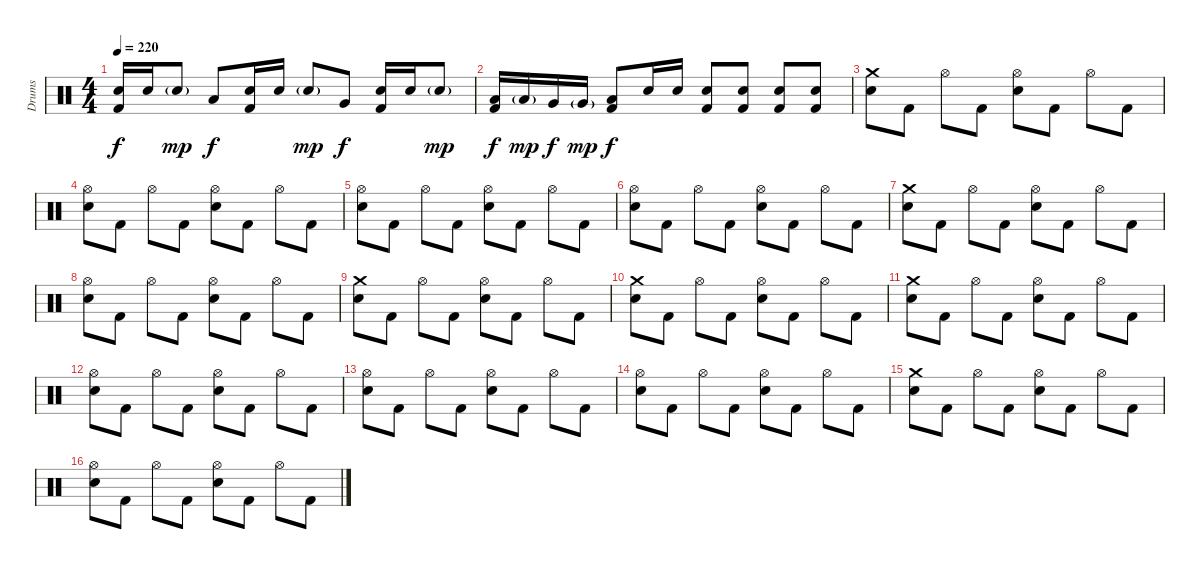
\track ("Drums" "Drums") {instrument percussion}
\staff {score}
\articulation defaults
\ts (4 4)
\tempo 220
\clef neutral
\ks c
("Electric Snare (hit)" "Kick (hit) 2").16{dy f} "Electric Snare (hit)".16 "Electric Snare (hit)"{g}.8{dy mp} "Low Tom (hit)".8{dy f} ("Electric Snare (hit)" "Kick (hit) 2").16 "Electric Snare (hit)".16 "Electric Snare (hit)"{g}.8{dy mp} "Very Low Tom (hit)".8{dy f} ("Electric Snare (hit)" "Kick (hit) 2").16 "Electric Snare (hit)".16 "Electric Snare (hit)"{g}.8{dy mp} |
("Low Tom (hit)" "Kick (hit) 2").16{dy f} "Low Tom (hit)"{g}.16{dy mp} "Very Low Tom (hit)".16{dy f} "Very Low Tom (hit)"{g}.16{dy mp} ("Low Floor Tom (hit)" "Kick (hit) 2").8{dy f} "Electric Snare (hit)".16 "Electric Snare (hit)".16 ("Electric Snare (hit)" "Kick (hit) 2").8 ("Electric Snare (hit)" "Kick (hit) 2").8 ("Electric Snare (hit)" "Kick (hit) 2").8 ("Electric Snare (hit)" "Kick (hit) 2").8 |
("Crash medium (hit)" "Electric Snare (hit)").8 "Kick (hit) 2".8 "Hi-Hat (open)".8 "Kick (hit) 2".8 ("Hi-Hat (open)" "Electric Snare (hit)").8 "Kick (hit) 2".8 "Hi-Hat (open)".8 "Kick (hit) 2".8 |
("Hi-Hat (open)" "Electric Snare (hit)").8 "Kick (hit) 2".8 "Hi-Hat (open)".8 "Kick (hit) 2".8 ("Hi-Hat (open)" "Electric Snare (hit)").8 "Kick (hit) 2".8 "Hi-Hat (open)".8 "Kick (hit) 2".8 |
("Hi-Hat (open)" "Electric Snare (hit)").8 "Kick (hit) 2".8 "Hi-Hat (open)".8 "Kick (hit) 2".8 ("Hi-Hat (open)" "Electric Snare (hit)").8 "Kick (hit) 2".8 "Hi-Hat (open)".8 "Kick (hit) 2".8 |
("Hi-Hat (open)" "Electric Snare (hit)").8 "Kick (hit) 2".8 "Hi-Hat (open)".8 "Kick (hit) 2".8 ("Hi-Hat (open)" "Electric Snare (hit)").8 "Kick (hit) 2".8 "Hi-Hat (open)".8 "Kick (hit) 2".8 |
("Crash medium (hit)" "Electric Snare (hit)").8 "Kick (hit) 2".8 "Hi-Hat (open)".8 "Kick (hit) 2".8 ("Hi-Hat (open)" "Electric Snare (hit)").8 "Kick (hit) 2".8 "Hi-Hat (open)".8 "Kick (hit) 2".8 |
("Hi-Hat (open)" "Electric Snare (hit)").8 "Kick (hit) 2".8 "Hi-Hat (open)".8 "Kick (hit) 2".8 ("Hi-Hat (open)" "Electric Snare (hit)").8 "Kick (hit) 2".8 "Hi-Hat (open)".8 "Kick (hit) 2".8 |
("Crash medium (hit)" "Electric Snare (hit)").8 "Kick (hit) 2".8 "Hi-Hat (open)".8 "Kick (hit) 2".8 ("Hi-Hat (open)" "Electric Snare (hit)").8 "Kick (hit) 2".8 "Hi-Hat (open)".8 "Kick (hit) 2".8 |
("Crash medium (hit)" "Electric Snare (hit)").8 "Kick (hit) 2".8 "Hi-Hat (open)".8 "Kick (hit) 2".8 ("Hi-Hat (open)" "Electric Snare (hit)").8 "Kick (hit) 2".8 "Hi-Hat (open)".8 "Kick (hit) 2".8 |
("Crash medium (hit)" "Electric Snare (hit)").8 "Kick (hit) 2".8 "Hi-Hat (open)".8 "Kick (hit) 2".8 ("Hi-Hat (open)" "Electric Snare (hit)").8 "Kick (hit) 2".8 "Hi-Hat (open)".8 "Kick (hit) 2".8 |
("Hi-Hat (open)" "Electric Snare (hit)").8 "Kick (hit) 2".8 "Hi-Hat (open)".8 "Kick (hit) 2".8 ("Hi-Hat (open)" "Electric Snare (hit)").8 "Kick (hit) 2".8 "Hi-Hat (open)".8 "Kick (hit) 2".8 |
("Hi-Hat (open)" "Electric Snare (hit)").8 "Kick (hit) 2".8 "Hi-Hat (open)".8 "Kick (hit) 2".8 ("Hi-Hat (open)" "Electric Snare (hit)").8 "Kick (hit) 2".8 "Hi-Hat (open)".8 "Kick (hit) 2".8 |
("Hi-Hat (open)" "Electric Snare (hit)").8 "Kick (hit) 2".8 "Hi-Hat (open)".8 "Kick (hit) 2".8 ("Hi-Hat (open)" "Electric Snare (hit)").8 "Kick (hit) 2".8 "Hi-Hat (open)".8 "Kick (hit) 2".8 |
("Crash medium (hit)" "Electric Snare (hit)").8 "Kick (hit) 2".8 "Hi-Hat (open)".8 "Kick (hit) 2".8 ("Hi-Hat (open)" "Electric Snare (hit)").8 "Kick (hit) 2".8 "Hi-Hat (open)".8 "Kick (hit) 2".8 |
("Hi-Hat (open)" "Electric Snare (hit)").8 "Kick (hit) 2".8 "Hi-Hat (open)".8 "Kick (hit) 2".8 ("Hi-Hat (open)" "Electric Snare (hit)").8 "Kick (hit) 2".8 "Hi-Hat (open)".8 "Kick (hit) 2".8
